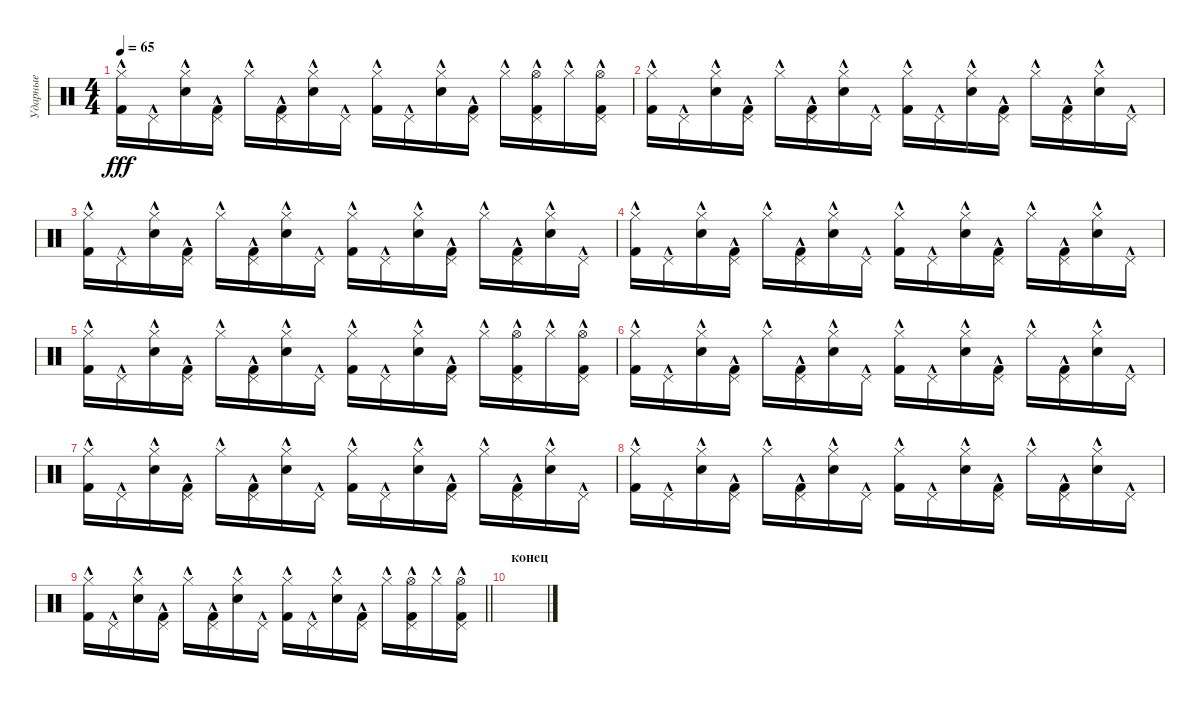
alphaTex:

\track ("Ударные" "Ударные") {instrument percussion}
\staff {score}
\articulation defaults
\ts (4 4)
\tempo 65
\clef neutral
\ks c
("Hi-Hat (closed)"{hac} "Kick (hit) 2"{hac}).16{dy fff} "Pedal Hi-Hat (hit)"{hac}.16 ("Hi-Hat (closed)"{hac} "Electric Snare (hit)"{hac}).16 ("Pedal Hi-Hat (hit)"{hac} "Kick (hit) 2"{hac}).16 "Hi-Hat (closed)"{hac}.16 ("Pedal Hi-Hat (hit)"{hac} "Kick (hit) 2"{hac}).16 ("Hi-Hat (closed)"{hac} "Electric Snare (hit)"{hac}).16 "Pedal Hi-Hat (hit)"{hac}.16 ("Hi-Hat (closed)"{hac} "Kick (hit) 2"{hac}).16 "Pedal Hi-Hat (hit)"{hac}.16 ("Hi-Hat (closed)"{hac} "Electric Snare (hit)"{hac}).16 ("Pedal Hi-Hat (hit)"{hac} "Kick (hit) 2"{hac}).16 "Hi-Hat (closed)"{hac}.16 ("Pedal Hi-Hat (hit)"{hac} "Kick (hit) 2"{hac} "Hi-Hat (open)"{hac}).16 "Hi-Hat (closed)"{hac}.16 ("Pedal Hi-Hat (hit)"{hac} "Kick (hit) 2"{hac} "Hi-Hat (open)"{hac}).16 |
("Hi-Hat (closed)"{hac} "Kick (hit) 2"{hac}).16 "Pedal Hi-Hat (hit)"{hac}.16 ("Hi-Hat (closed)"{hac} "Electric Snare (hit)"{hac}).16 ("Pedal Hi-Hat (hit)"{hac} "Kick (hit) 2"{hac}).16 "Hi-Hat (closed)"{hac}.16 ("Pedal Hi-Hat (hit)"{hac} "Kick (hit) 2"{hac}).16 ("Hi-Hat (closed)"{hac} "Electric Snare (hit)"{hac}).16 "Pedal Hi-Hat (hit)"{hac}.16 ("Hi-Hat (closed)"{hac} "Kick (hit) 2"{hac}).16 "Pedal Hi-Hat (hit)"{hac}.16 ("Hi-Hat (closed)"{hac} "Electric Snare (hit)"{hac}).16 ("Pedal Hi-Hat (hit)"{hac} "Kick (hit) 2"{hac}).16 "Hi-Hat (closed)"{hac}.16 ("Pedal Hi-Hat (hit)"{hac} "Kick (hit) 2"{hac}).16 ("Hi-Hat (closed)"{hac} "Electric Snare (hit)"{hac}).16 "Pedal Hi-Hat (hit)"{hac}.16 |
("Hi-Hat (closed)"{hac} "Kick (hit) 2"{hac}).16 "Pedal Hi-Hat (hit)"{hac}.16 ("Hi-Hat (closed)"{hac} "Electric Snare (hit)"{hac}).16 ("Pedal Hi-Hat (hit)"{hac} "Kick (hit) 2"{hac}).16 "Hi-Hat (closed)"{hac}.16 ("Pedal Hi-Hat (hit)"{hac} "Kick (hit) 2"{hac}).16 ("Hi-Hat (closed)"{hac} "Electric Snare (hit)"{hac}).16 "Pedal Hi-Hat (hit)"{hac}.16 ("Hi-Hat (closed)"{hac} "Kick (hit) 2"{hac}).16 "Pedal Hi-Hat (hit)"{hac}.16 ("Hi-Hat (closed)"{hac} "Electric Snare (hit)"{hac}).16 ("Pedal Hi-Hat (hit)"{hac} "Kick (hit) 2"{hac}).16 "Hi-Hat (closed)"{hac}.16 ("Pedal Hi-Hat (hit)"{hac} "Kick (hit) 2"{hac}).16 ("Hi-Hat (closed)"{hac} "Electric Snare (hit)"{hac}).16 "Pedal Hi-Hat (hit)"{hac}.16 |
("Hi-Hat (closed)"{hac} "Kick (hit) 2"{hac}).16 "Pedal Hi-Hat (hit)"{hac}.16 ("Hi-Hat (closed)"{hac} "Electric Snare (hit)"{hac}).16 ("Pedal Hi-Hat (hit)"{hac} "Kick (hit) 2"{hac}).16 "Hi-Hat (closed)"{hac}.16 ("Pedal Hi-Hat (hit)"{hac} "Kick (hit) 2"{hac}).16 ("Hi-Hat (closed)"{hac} "Electric Snare (hit)"{hac}).16 "Pedal Hi-Hat (hit)"{hac}.16 ("Hi-Hat (closed)"{hac} "Kick (hit) 2"{hac}).16 "Pedal Hi-Hat (hit)"{hac}.16 ("Hi-Hat (closed)"{hac} "Electric Snare (hit)"{hac}).16 ("Pedal Hi-Hat (hit)"{hac} "Kick (hit) 2"{hac}).16 "Hi-Hat (closed)"{hac}.16 ("Pedal Hi-Hat (hit)"{hac} "Kick (hit) 2"{hac}).16 ("Hi-Hat (closed)"{hac} "Electric Snare (hit)"{hac}).16 "Pedal Hi-Hat (hit)"{hac}.16 |
("Hi-Hat (closed)"{hac} "Kick (hit) 2"{hac}).16 "Pedal Hi-Hat (hit)"{hac}.16 ("Hi-Hat (closed)"{hac} "Electric Snare (hit)"{hac}).16 ("Pedal Hi-Hat (hit)"{hac} "Kick (hit) 2"{hac}).16 "Hi-Hat (closed)"{hac}.16 ("Pedal Hi-Hat (hit)"{hac} "Kick (hit) 2"{hac}).16 ("Hi-Hat (closed)"{hac} "Electric Snare (hit)"{hac}).16 "Pedal Hi-Hat (hit)"{hac}.16 ("Hi-Hat (closed)"{hac} "Kick (hit) 2"{hac}).16 "Pedal Hi-Hat (hit)"{hac}.16 ("Hi-Hat (closed)"{hac} "Electric Snare (hit)"{hac}).16 ("Pedal Hi-Hat (hit)"{hac} "Kick (hit) 2"{hac}).16 "Hi-Hat (closed)"{hac}.16 ("Pedal Hi-Hat (hit)"{hac} "Kick (hit) 2"{hac} "Hi-Hat (open)"{hac}).16 "Hi-Hat (closed)"{hac}.16 ("Pedal Hi-Hat (hit)"{hac} "Kick (hit) 2"{hac} "Hi-Hat (open)"{hac}).16 |
("Hi-Hat (closed)"{hac} "Kick (hit) 2"{hac}).16 "Pedal Hi-Hat (hit)"{hac}.16 ("Hi-Hat (closed)"{hac} "Electric Snare (hit)"{hac}).16 ("Pedal Hi-Hat (hit)"{hac} "Kick (hit) 2"{hac}).16 "Hi-Hat (closed)"{hac}.16 ("Pedal Hi-Hat (hit)"{hac} "Kick (hit) 2"{hac}).16 ("Hi-Hat (closed)"{hac} "Electric Snare (hit)"{hac}).16 "Pedal Hi-Hat (hit)"{hac}.16 ("Hi-Hat (closed)"{hac} "Kick (hit) 2"{hac}).16 "Pedal Hi-Hat (hit)"{hac}.16 ("Hi-Hat (closed)"{hac} "Electric Snare (hit)"{hac}).16 ("Pedal Hi-Hat (hit)"{hac} "Kick (hit) 2"{hac}).16 "Hi-Hat (closed)"{hac}.16 ("Pedal Hi-Hat (hit)"{hac} "Kick (hit) 2"{hac}).16 ("Hi-Hat (closed)"{hac} "Electric Snare (hit)"{hac}).16 "Pedal Hi-Hat (hit)"{hac}.16 |
("Hi-Hat (closed)"{hac} "Kick (hit) 2"{hac}).16 "Pedal Hi-Hat (hit)"{hac}.16 ("Hi-Hat (closed)"{hac} "Electric Snare (hit)"{hac}).16 ("Pedal Hi-Hat (hit)"{hac} "Kick (hit) 2"{hac}).16 "Hi-Hat (closed)"{hac}.16 ("Pedal Hi-Hat (hit)"{hac} "Kick (hit) 2"{hac}).16 ("Hi-Hat (closed)"{hac} "Electric Snare (hit)"{hac}).16 "Pedal Hi-Hat (hit)"{hac}.16 ("Hi-Hat (closed)"{hac} "Kick (hit) 2"{hac}).16 "Pedal Hi-Hat (hit)"{hac}.16 ("Hi-Hat (closed)"{hac} "Electric Snare (hit)"{hac}).16 ("Pedal Hi-Hat (hit)"{hac} "Kick (hit) 2"{hac}).16 "Hi-Hat (closed)"{hac}.16 ("Pedal Hi-Hat (hit)"{hac} "Kick (hit) 2"{hac}).16 ("Hi-Hat (closed)"{hac} "Electric Snare (hit)"{hac}).16 "Pedal Hi-Hat (hit)"{hac}.16 |
("Hi-Hat (closed)"{hac} "Kick (hit) 2"{hac}).16 "Pedal Hi-Hat (hit)"{hac}.16 ("Hi-Hat (closed)"{hac} "Electric Snare (hit)"{hac}).16 ("Pedal Hi-Hat (hit)"{hac} "Kick (hit) 2"{hac}).16 "Hi-Hat (closed)"{hac}.16 ("Pedal Hi-Hat (hit)"{hac} "Kick (hit) 2"{hac}).16 ("Hi-Hat (closed)"{hac} "Electric Snare (hit)"{hac}).16 "Pedal Hi-Hat (hit)"{hac}.16 ("Hi-Hat (closed)"{hac} "Kick (hit) 2"{hac}).16 "Pedal Hi-Hat (hit)"{hac}.16 ("Hi-Hat (closed)"{hac} "Electric Snare (hit)"{hac}).16 ("Pedal Hi-Hat (hit)"{hac} "Kick (hit) 2"{hac}).16 "Hi-Hat (closed)"{hac}.16 ("Pedal Hi-Hat (hit)"{hac} "Kick (hit) 2"{hac}).16 ("Hi-Hat (closed)"{hac} "Electric Snare (hit)"{hac}).16 "Pedal Hi-Hat (hit)"{hac}.16 |
\barLineRight lightlight
("Hi-Hat (closed)"{hac} "Kick (hit) 2"{hac}).16 "Pedal Hi-Hat (hit)"{hac}.16 ("Hi-Hat (closed)"{hac} "Electric Snare (hit)"{hac}).16 ("Pedal Hi-Hat (hit)"{hac} "Kick (hit) 2"{hac}).16 "Hi-Hat (closed)"{hac}.16 ("Pedal Hi-Hat (hit)"{hac} "Kick (hit) 2"{hac}).16 ("Hi-Hat (closed)"{hac} "Electric Snare (hit)"{hac}).16 "Pedal Hi-Hat (hit)"{hac}.16 ("Hi-Hat (closed)"{hac} "Kick (hit) 2"{hac}).16 "Pedal Hi-Hat (hit)"{hac}.16 ("Hi-Hat (closed)"{hac} "Electric Snare (hit)"{hac}).16 ("Pedal Hi-Hat (hit)"{hac} "Kick (hit) 2"{hac}).16 "Hi-Hat (closed)"{hac}.16 ("Pedal Hi-Hat (hit)"{hac} "Kick (hit) 2"{hac} "Hi-Hat (open)"{hac}).16 "Hi-Hat (closed)"{hac}.16 ("Pedal Hi-Hat (hit)"{hac} "Kick (hit) 2"{hac} "Hi-Hat (open)"{hac}).16 |
\section ("" "конец")
